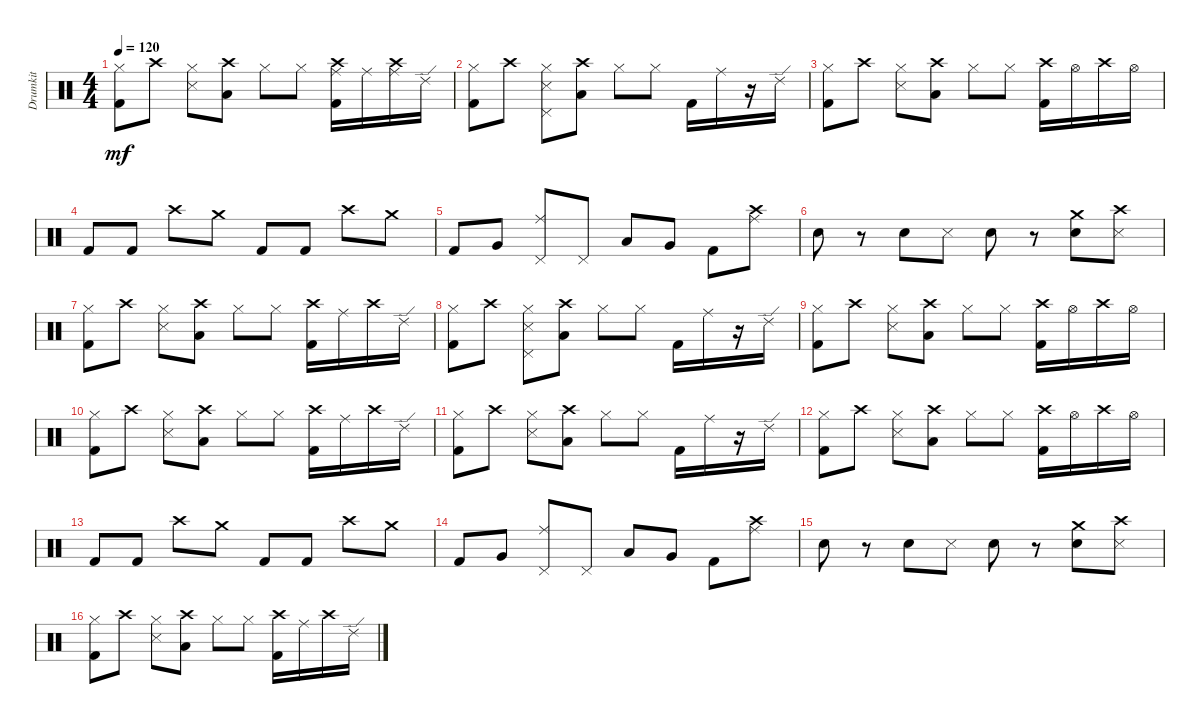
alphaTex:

\track ("Drumkit" "Drumkit") {instrument percussion}
\staff {score}
\articulation defaults
\ts (4 4)
\tempo 120
\clef neutral
\ks c
("Hi-Hat (closed)" "Kick (hit) 2").8{dy mf} "Crash high (hit)".8 ("Hi-Hat (closed)" "Snare (side stick) 3").8 ("Crash high (hit)" "Low Floor Tom (hit)").8 "Hi-Hat (closed)".8 "Hi-Hat (closed)".8 ("Crash high (hit)" "Kick (hit) 2" "Ride (middle)").16 "Ride (middle)".16 ("Crash high (hit)" "Ride (middle)").16 "Ride (edge) 2".16 |
("Hi-Hat (closed)" "Kick (hit) 2").8 "Crash high (hit)".8 ("Hi-Hat (closed)" "Snare (side stick) 3" "Pedal Hi-Hat (hit)").8 ("Crash high (hit)" "Low Floor Tom (hit)").8 "Hi-Hat (closed)".8 "Hi-Hat (closed)".8 "Kick (hit) 2".16 "Ride (middle)".16 r.16 "Ride (edge) 2".16 |
("Hi-Hat (closed)" "Kick (hit) 2").8 "Crash high (hit)".8 ("Hi-Hat (closed)" "Snare (side stick) 3").8 ("Crash high (hit)" "Low Floor Tom (hit)").8 "Hi-Hat (closed)".8 "Hi-Hat (closed)".8 ("Crash high (hit)" "Kick (hit) 2").16 "Hi-Hat (open)".16 "Crash high (hit)".16 "Hi-Hat (open)".16 |
"Kick (hit) 2".8 "Kick (hit) 2".8 "Crash high (hit)".8 "Crash medium (hit)".8 "Kick (hit) 2".8 "Kick (hit) 2".8 "Crash high (hit)".8 "Crash medium (hit)".8 |
"Kick (hit) 2".8 "Very Low Tom (hit)".8 ("Pedal Hi-Hat (hit)" "Ride (middle)").8 "Pedal Hi-Hat (hit)".8 "Low Floor Tom (hit)".8 "Very Low Tom (hit)".8 "Kick (hit) 2".8 ("Ride (middle)" "Crash high (hit)").8 |
"Snare (hit) 2".8 r.8 "Snare (hit) 2".8 "Snare (side stick) 3".8 "Snare (hit) 2".8 r.8 ("Snare (hit) 2" "Crash medium (hit)").8 ("Snare (side stick) 3" "Crash high (hit)").8 |
("Hi-Hat (closed)" "Kick (hit) 2").8 "Crash high (hit)".8 ("Hi-Hat (closed)" "Snare (side stick) 3").8 ("Crash high (hit)" "Low Floor Tom (hit)").8 "Hi-Hat (closed)".8 "Hi-Hat (closed)".8 ("Crash high (hit)" "Kick (hit) 2").16 "Ride (middle)".16 "Crash high (hit)".16 "Ride (edge) 2".16 |
("Hi-Hat (closed)" "Kick (hit) 2").8 "Crash high (hit)".8 ("Hi-Hat (closed)" "Snare (side stick) 3" "Pedal Hi-Hat (hit)").8 ("Crash high (hit)" "Low Floor Tom (hit)").8 "Hi-Hat (closed)".8 "Hi-Hat (closed)".8 "Kick (hit) 2".16 "Ride (middle)".16 r.16 "Ride (edge) 2".16 |
("Hi-Hat (closed)" "Kick (hit) 2").8 "Crash high (hit)".8 ("Hi-Hat (closed)" "Snare (side stick) 3").8 ("Crash high (hit)" "Low Floor Tom (hit)").8 "Hi-Hat (closed)".8 "Hi-Hat (closed)".8 ("Crash high (hit)" "Kick (hit) 2").16 "Hi-Hat (open)".16 "Crash high (hit)".16 "Hi-Hat (open)".16 |
("Hi-Hat (closed)" "Kick (hit) 2").8 "Crash high (hit)".8 ("Hi-Hat (closed)" "Snare (side stick) 3").8 ("Crash high (hit)" "Low Floor Tom (hit)").8 "Hi-Hat (closed)".8 "Hi-Hat (closed)".8 ("Crash high (hit)" "Kick (hit) 2").16 "Ride (middle)".16 "Crash high (hit)".16 "Ride (edge) 2".16 |
("Hi-Hat (closed)" "Kick (hit) 2").8 "Crash high (hit)".8 ("Hi-Hat (closed)" "Snare (side stick) 3").8 ("Crash high (hit)" "Low Floor Tom (hit)").8 "Hi-Hat (closed)".8 "Hi-Hat (closed)".8 "Kick (hit) 2".16 "Ride (middle)".16 r.16 "Ride (edge) 2".16 |
("Hi-Hat (closed)" "Kick (hit) 2").8 "Crash high (hit)".8 ("Hi-Hat (closed)" "Snare (side stick) 3").8 ("Crash high (hit)" "Low Floor Tom (hit)").8 "Hi-Hat (closed)".8 "Hi-Hat (closed)".8 ("Crash high (hit)" "Kick (hit) 2").16 "Hi-Hat (open)".16 "Crash high (hit)".16 "Hi-Hat (open)".16 |
"Kick (hit) 2".8 "Kick (hit) 2".8 "Crash high (hit)".8 "Crash medium (hit)".8 "Kick (hit) 2".8 "Kick (hit) 2".8 "Crash high (hit)".8 "Crash medium (hit)".8 |
"Kick (hit) 2".8 "Very Low Tom (hit)".8 ("Pedal Hi-Hat (hit)" "Ride (middle)").8 "Pedal Hi-Hat (hit)".8 "Low Floor Tom (hit)".8 "Very Low Tom (hit)".8 "Kick (hit) 2".8 ("Ride (middle)" "Crash high (hit)").8 |
"Snare (hit) 2".8 r.8 "Snare (hit) 2".8 "Snare (side stick) 3".8 "Snare (hit) 2".8 r.8 ("Snare (hit) 2" "Crash medium (hit)").8 ("Snare (side stick) 3" "Crash high (hit)").8 |
("Hi-Hat (closed)" "Kick (hit) 2").8 "Crash high (hit)".8 ("Hi-Hat (closed)" "Snare (side stick) 3").8 ("Crash high (hit)" "Low Floor Tom (hit)").8 "Hi-Hat (closed)".8 "Hi-Hat (closed)".8 ("Crash high (hit)" "Kick (hit) 2").16 "Ride (middle)".16 "Crash high (hit)".16 "Ride (edge) 2".16
